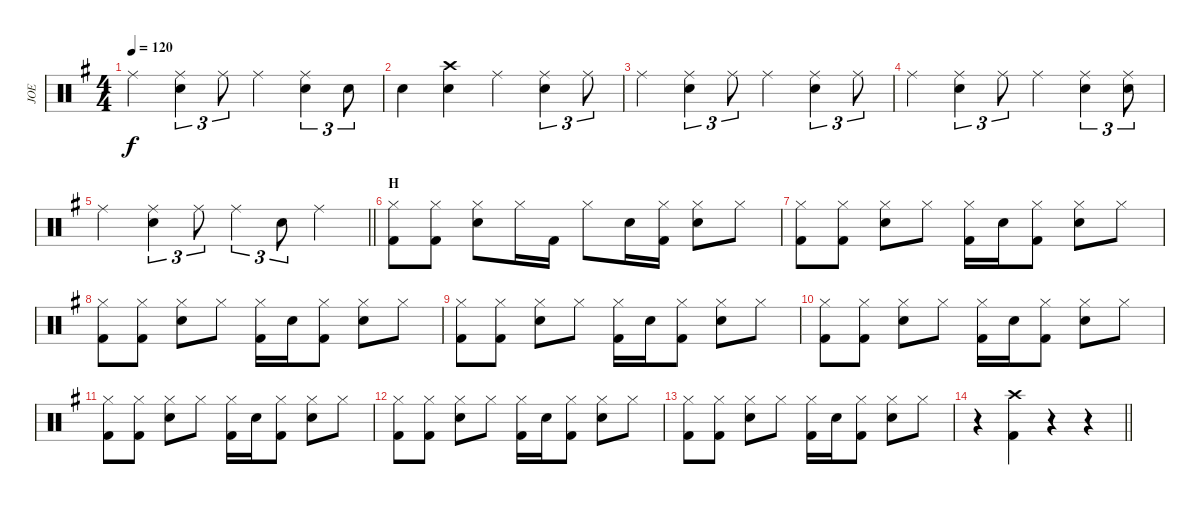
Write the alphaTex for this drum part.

\track ("JOE" "JOE") {instrument percussion}
\staff {score}
\articulation defaults
\ts (4 4)
\tempo 120
\clef neutral
\ks eminor "Ride (middle)".4{dy f}
("Ride (middle)" "Snare (hit) 2").4{tu (3 2)} "Ride (middle)".8{tu (3 2)} "Ride (middle)".4 ("Ride (middle)" "Snare (hit) 2").4{tu (3 2)} "Snare (hit) 2".8{tu (3 2)} |
"Snare (hit) 2".4 ("Crash high (hit)" "Snare (hit) 2").4 "Ride (middle)".4 ("Ride (middle)" "Snare (hit) 2").4{tu (3 2)} "Ride (middle)".8{tu (3 2)} |
"Ride (middle)".4 ("Ride (middle)" "Snare (hit) 2").4{tu (3 2)} "Ride (middle)".8{tu (3 2)} "Ride (middle)".4 ("Ride (middle)" "Snare (hit) 2").4{tu (3 2)} "Ride (middle)".8{tu (3 2)} |
"Ride (middle)".4 ("Ride (middle)" "Snare (hit) 2").4{tu (3 2)} "Ride (middle)".8{tu (3 2)} "Ride (middle)".4 ("Ride (middle)" "Snare (hit) 2").4{tu (3 2)} ("Ride (middle)" "Snare (hit) 2").8{tu (3 2)} |
\barLineRight lightlight "Ride (middle)".4
("Ride (middle)" "Snare (hit) 2").4{tu (3 2)} "Ride (middle)".8{tu (3 2)} "Ride (middle)".4{tu (3 2)} "Snare (hit) 2".8{tu (3 2)} "Ride (middle)".4 |
\section ("" "H")
("Hi-Hat (closed)" "Kick (hit) 2").8 ("Hi-Hat (closed)" "Kick (hit) 2").8 ("Hi-Hat (closed)" "Snare (hit) 2").8 "Hi-Hat (closed)".16 "Kick (hit) 2".16 "Hi-Hat (closed)".8 "Snare (hit) 2".16 ("Hi-Hat (closed)" "Kick (hit) 2").16 ("Hi-Hat (closed)" "Snare (hit) 2").8 "Hi-Hat (closed)".8 |
("Hi-Hat (closed)" "Kick (hit) 2").8 ("Hi-Hat (closed)" "Kick (hit) 2").8 ("Hi-Hat (closed)" "Snare (hit) 2").8 "Hi-Hat (closed)".8 ("Hi-Hat (closed)" "Kick (hit) 2").16 "Snare (hit) 2".16 ("Hi-Hat (closed)" "Kick (hit) 2").8 ("Hi-Hat (closed)" "Snare (hit) 2").8 "Hi-Hat (closed)".8 |
("Hi-Hat (closed)" "Kick (hit) 2").8 ("Hi-Hat (closed)" "Kick (hit) 2").8 ("Hi-Hat (closed)" "Snare (hit) 2").8 "Hi-Hat (closed)".8 ("Hi-Hat (closed)" "Kick (hit) 2").16 "Snare (hit) 2".16 ("Hi-Hat (closed)" "Kick (hit) 2").8 ("Hi-Hat (closed)" "Snare (hit) 2").8 "Hi-Hat (closed)".8 |
("Hi-Hat (closed)" "Kick (hit) 2").8 ("Hi-Hat (closed)" "Kick (hit) 2").8 ("Hi-Hat (closed)" "Snare (hit) 2").8 "Hi-Hat (closed)".8 ("Hi-Hat (closed)" "Kick (hit) 2").16 "Snare (hit) 2".16 ("Hi-Hat (closed)" "Kick (hit) 2").8 ("Hi-Hat (closed)" "Snare (hit) 2").8 "Hi-Hat (closed)".8 |
("Hi-Hat (closed)" "Kick (hit) 2").8 ("Hi-Hat (closed)" "Kick (hit) 2").8 ("Hi-Hat (closed)" "Snare (hit) 2").8 "Hi-Hat (closed)".8 ("Hi-Hat (closed)" "Kick (hit) 2").16 "Snare (hit) 2".16 ("Hi-Hat (closed)" "Kick (hit) 2").8 ("Hi-Hat (closed)" "Snare (hit) 2").8 "Hi-Hat (closed)".8 |
("Hi-Hat (closed)" "Kick (hit) 2").8 ("Hi-Hat (closed)" "Kick (hit) 2").8 ("Hi-Hat (closed)" "Snare (hit) 2").8 "Hi-Hat (closed)".8 ("Hi-Hat (closed)" "Kick (hit) 2").16 "Snare (hit) 2".16 ("Hi-Hat (closed)" "Kick (hit) 2").8 ("Hi-Hat (closed)" "Snare (hit) 2").8 "Hi-Hat (closed)".8 |
("Hi-Hat (closed)" "Kick (hit) 2").8 ("Hi-Hat (closed)" "Kick (hit) 2").8 ("Hi-Hat (closed)" "Snare (hit) 2").8 "Hi-Hat (closed)".8 ("Hi-Hat (closed)" "Kick (hit) 2").16 "Snare (hit) 2".16 ("Hi-Hat (closed)" "Kick (hit) 2").8 ("Hi-Hat (closed)" "Snare (hit) 2").8 "Hi-Hat (closed)".8 |
("Hi-Hat (closed)" "Kick (hit) 2").8 ("Hi-Hat (closed)" "Kick (hit) 2").8 ("Hi-Hat (closed)" "Snare (hit) 2").8 "Hi-Hat (closed)".8 ("Hi-Hat (closed)" "Kick (hit) 2").16 "Snare (hit) 2".16 ("Hi-Hat (closed)" "Kick (hit) 2").8 ("Hi-Hat (closed)" "Snare (hit) 2").8 "Hi-Hat (closed)".8 |
\barLineRight lightlight
r.4 ("Crash high (hit)" "Kick (hit) 2").4 r.4 r.4
